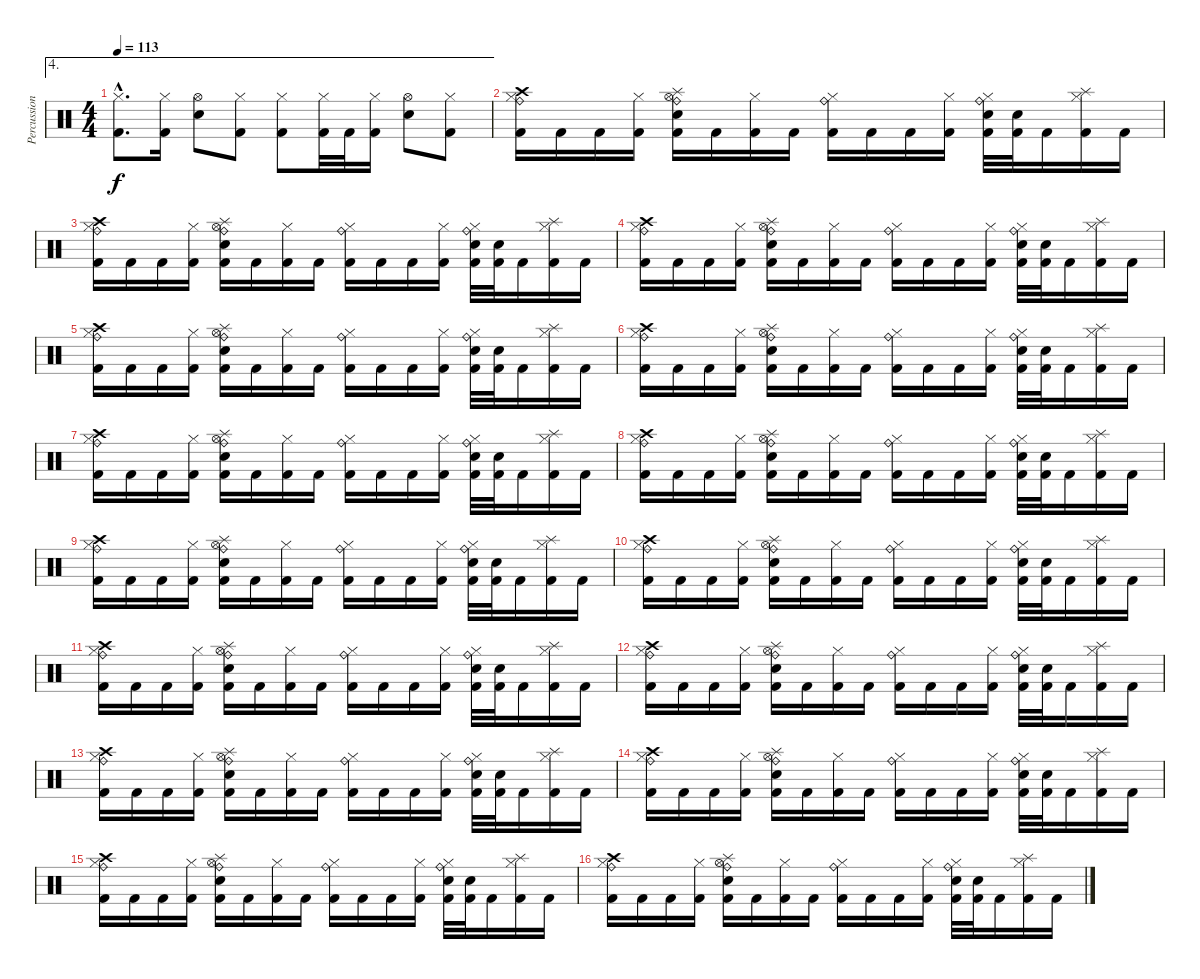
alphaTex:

\track ("Percussion" "Percussion") {instrument percussion}
\staff {score}
\articulation defaults
\ae 4
\ts (4 4)
\tempo 113
\clef neutral
\ks c
("Hi-Hat (closed)"{hac} "Kick (hit) 2"{hac}).8{d dy f} ("Hi-Hat (closed)" "Kick (hit) 2").16 ("Hi-Hat (open)" "Snare (hit) 2").8 ("Hi-Hat (closed)" "Kick (hit) 2").8 ("Hi-Hat (closed)" "Kick (hit) 2").8 ("Hi-Hat (closed)" "Kick (hit) 2").32 "Kick (hit) 2".32 ("Hi-Hat (closed)" "Kick (hit) 2").16 ("Hi-Hat (open)" "Snare (hit) 2").8 ("Hi-Hat (closed)" "Kick (hit) 2").8 |
("Ride (bell)" "Crash high (hit)" "Hi-Hat (closed)" "Kick (hit) 2").16 "Kick (hit) 2".16 "Kick (hit) 2".16 ("Hi-Hat (closed)" "Kick (hit) 2").16 ("Ride (bell)" "Hi-Hat (open)" "Splash (hit)" "Snare (hit) 2" "Kick (hit) 2").16 "Kick (hit) 2".16 ("Hi-Hat (closed)" "Kick (hit) 2").16 "Kick (hit) 2".16 ("Ride (bell)" "Hi-Hat (closed)" "Kick (hit) 2").16 "Kick (hit) 2".16 "Kick (hit) 2".16 ("Hi-Hat (closed)" "Kick (hit) 2").16 ("Ride (bell)" "Hi-Hat (closed)" "Snare (hit) 2" "Kick (hit) 2").32 ("Snare (hit) 2" "Kick (hit) 2").32 "Kick (hit) 2".16 ("Hi-Hat (closed)" "Splash (hit)" "Kick (hit) 2").16 "Kick (hit) 2".16 |
("Ride (bell)" "Crash high (hit)" "Hi-Hat (closed)" "Kick (hit) 2").16 "Kick (hit) 2".16 "Kick (hit) 2".16 ("Hi-Hat (closed)" "Kick (hit) 2").16 ("Ride (bell)" "Hi-Hat (open)" "Splash (hit)" "Snare (hit) 2" "Kick (hit) 2").16 "Kick (hit) 2".16 ("Hi-Hat (closed)" "Kick (hit) 2").16 "Kick (hit) 2".16 ("Ride (bell)" "Hi-Hat (closed)" "Kick (hit) 2").16 "Kick (hit) 2".16 "Kick (hit) 2".16 ("Hi-Hat (closed)" "Kick (hit) 2").16 ("Ride (bell)" "Hi-Hat (closed)" "Snare (hit) 2" "Kick (hit) 2").32 ("Snare (hit) 2" "Kick (hit) 2").32 "Kick (hit) 2".16 ("Hi-Hat (closed)" "Splash (hit)" "Kick (hit) 2").16 "Kick (hit) 2".16 |
("Ride (bell)" "Crash high (hit)" "Hi-Hat (closed)" "Kick (hit) 2").16 "Kick (hit) 2".16 "Kick (hit) 2".16 ("Hi-Hat (closed)" "Kick (hit) 2").16 ("Ride (bell)" "Hi-Hat (open)" "Splash (hit)" "Snare (hit) 2" "Kick (hit) 2").16 "Kick (hit) 2".16 ("Hi-Hat (closed)" "Kick (hit) 2").16 "Kick (hit) 2".16 ("Ride (bell)" "Hi-Hat (closed)" "Kick (hit) 2").16 "Kick (hit) 2".16 "Kick (hit) 2".16 ("Hi-Hat (closed)" "Kick (hit) 2").16 ("Ride (bell)" "Hi-Hat (closed)" "Snare (hit) 2" "Kick (hit) 2").32 ("Snare (hit) 2" "Kick (hit) 2").32 "Kick (hit) 2".16 ("Hi-Hat (closed)" "Splash (hit)" "Kick (hit) 2").16 "Kick (hit) 2".16 |
("Ride (bell)" "Crash high (hit)" "Hi-Hat (closed)" "Kick (hit) 2").16 "Kick (hit) 2".16 "Kick (hit) 2".16 ("Hi-Hat (closed)" "Kick (hit) 2").16 ("Ride (bell)" "Hi-Hat (open)" "Splash (hit)" "Snare (hit) 2" "Kick (hit) 2").16 "Kick (hit) 2".16 ("Hi-Hat (closed)" "Kick (hit) 2").16 "Kick (hit) 2".16 ("Ride (bell)" "Hi-Hat (closed)" "Kick (hit) 2").16 "Kick (hit) 2".16 "Kick (hit) 2".16 ("Hi-Hat (closed)" "Kick (hit) 2").16 ("Ride (bell)" "Hi-Hat (closed)" "Snare (hit) 2" "Kick (hit) 2").32 ("Snare (hit) 2" "Kick (hit) 2").32 "Kick (hit) 2".16 ("Hi-Hat (closed)" "Splash (hit)" "Kick (hit) 2").16 "Kick (hit) 2".16 |
("Ride (bell)" "Crash high (hit)" "Hi-Hat (closed)" "Kick (hit) 2").16 "Kick (hit) 2".16 "Kick (hit) 2".16 ("Hi-Hat (closed)" "Kick (hit) 2").16 ("Ride (bell)" "Hi-Hat (open)" "Splash (hit)" "Snare (hit) 2" "Kick (hit) 2").16 "Kick (hit) 2".16 ("Hi-Hat (closed)" "Kick (hit) 2").16 "Kick (hit) 2".16 ("Ride (bell)" "Hi-Hat (closed)" "Kick (hit) 2").16 "Kick (hit) 2".16 "Kick (hit) 2".16 ("Hi-Hat (closed)" "Kick (hit) 2").16 ("Ride (bell)" "Hi-Hat (closed)" "Snare (hit) 2" "Kick (hit) 2").32 ("Snare (hit) 2" "Kick (hit) 2").32 "Kick (hit) 2".16 ("Hi-Hat (closed)" "Splash (hit)" "Kick (hit) 2").16 "Kick (hit) 2".16 |
("Ride (bell)" "Crash high (hit)" "Hi-Hat (closed)" "Kick (hit) 2").16 "Kick (hit) 2".16 "Kick (hit) 2".16 ("Hi-Hat (closed)" "Kick (hit) 2").16 ("Ride (bell)" "Hi-Hat (open)" "Splash (hit)" "Snare (hit) 2" "Kick (hit) 2").16 "Kick (hit) 2".16 ("Hi-Hat (closed)" "Kick (hit) 2").16 "Kick (hit) 2".16 ("Ride (bell)" "Hi-Hat (closed)" "Kick (hit) 2").16 "Kick (hit) 2".16 "Kick (hit) 2".16 ("Hi-Hat (closed)" "Kick (hit) 2").16 ("Ride (bell)" "Hi-Hat (closed)" "Snare (hit) 2" "Kick (hit) 2").32 ("Snare (hit) 2" "Kick (hit) 2").32 "Kick (hit) 2".16 ("Hi-Hat (closed)" "Splash (hit)" "Kick (hit) 2").16 "Kick (hit) 2".16 |
("Ride (bell)" "Crash high (hit)" "Hi-Hat (closed)" "Kick (hit) 2").16 "Kick (hit) 2".16 "Kick (hit) 2".16 ("Hi-Hat (closed)" "Kick (hit) 2").16 ("Ride (bell)" "Hi-Hat (open)" "Splash (hit)" "Snare (hit) 2" "Kick (hit) 2").16 "Kick (hit) 2".16 ("Hi-Hat (closed)" "Kick (hit) 2").16 "Kick (hit) 2".16 ("Ride (bell)" "Hi-Hat (closed)" "Kick (hit) 2").16 "Kick (hit) 2".16 "Kick (hit) 2".16 ("Hi-Hat (closed)" "Kick (hit) 2").16 ("Ride (bell)" "Hi-Hat (closed)" "Snare (hit) 2" "Kick (hit) 2").32 ("Snare (hit) 2" "Kick (hit) 2").32 "Kick (hit) 2".16 ("Hi-Hat (closed)" "Splash (hit)" "Kick (hit) 2").16 "Kick (hit) 2".16 |
("Ride (bell)" "Crash high (hit)" "Hi-Hat (closed)" "Kick (hit) 2").16 "Kick (hit) 2".16 "Kick (hit) 2".16 ("Hi-Hat (closed)" "Kick (hit) 2").16 ("Ride (bell)" "Hi-Hat (open)" "Splash (hit)" "Snare (hit) 2" "Kick (hit) 2").16 "Kick (hit) 2".16 ("Hi-Hat (closed)" "Kick (hit) 2").16 "Kick (hit) 2".16 ("Ride (bell)" "Hi-Hat (closed)" "Kick (hit) 2").16 "Kick (hit) 2".16 "Kick (hit) 2".16 ("Hi-Hat (closed)" "Kick (hit) 2").16 ("Ride (bell)" "Hi-Hat (closed)" "Snare (hit) 2" "Kick (hit) 2").32 ("Snare (hit) 2" "Kick (hit) 2").32 "Kick (hit) 2".16 ("Hi-Hat (closed)" "Splash (hit)" "Kick (hit) 2").16 "Kick (hit) 2".16 |
("Ride (bell)" "Crash high (hit)" "Hi-Hat (closed)" "Kick (hit) 2").16 "Kick (hit) 2".16 "Kick (hit) 2".16 ("Hi-Hat (closed)" "Kick (hit) 2").16 ("Ride (bell)" "Hi-Hat (open)" "Splash (hit)" "Snare (hit) 2" "Kick (hit) 2").16 "Kick (hit) 2".16 ("Hi-Hat (closed)" "Kick (hit) 2").16 "Kick (hit) 2".16 ("Ride (bell)" "Hi-Hat (closed)" "Kick (hit) 2").16 "Kick (hit) 2".16 "Kick (hit) 2".16 ("Hi-Hat (closed)" "Kick (hit) 2").16 ("Ride (bell)" "Hi-Hat (closed)" "Snare (hit) 2" "Kick (hit) 2").32 ("Snare (hit) 2" "Kick (hit) 2").32 "Kick (hit) 2".16 ("Hi-Hat (closed)" "Splash (hit)" "Kick (hit) 2").16 "Kick (hit) 2".16 |
("Ride (bell)" "Crash high (hit)" "Hi-Hat (closed)" "Kick (hit) 2").16 "Kick (hit) 2".16 "Kick (hit) 2".16 ("Hi-Hat (closed)" "Kick (hit) 2").16 ("Ride (bell)" "Hi-Hat (open)" "Splash (hit)" "Snare (hit) 2" "Kick (hit) 2").16 "Kick (hit) 2".16 ("Hi-Hat (closed)" "Kick (hit) 2").16 "Kick (hit) 2".16 ("Ride (bell)" "Hi-Hat (closed)" "Kick (hit) 2").16 "Kick (hit) 2".16 "Kick (hit) 2".16 ("Hi-Hat (closed)" "Kick (hit) 2").16 ("Ride (bell)" "Hi-Hat (closed)" "Snare (hit) 2" "Kick (hit) 2").32 ("Snare (hit) 2" "Kick (hit) 2").32 "Kick (hit) 2".16 ("Hi-Hat (closed)" "Splash (hit)" "Kick (hit) 2").16 "Kick (hit) 2".16 |
("Ride (bell)" "Crash high (hit)" "Hi-Hat (closed)" "Kick (hit) 2").16 "Kick (hit) 2".16 "Kick (hit) 2".16 ("Hi-Hat (closed)" "Kick (hit) 2").16 ("Ride (bell)" "Hi-Hat (open)" "Splash (hit)" "Snare (hit) 2" "Kick (hit) 2").16 "Kick (hit) 2".16 ("Hi-Hat (closed)" "Kick (hit) 2").16 "Kick (hit) 2".16 ("Ride (bell)" "Hi-Hat (closed)" "Kick (hit) 2").16 "Kick (hit) 2".16 "Kick (hit) 2".16 ("Hi-Hat (closed)" "Kick (hit) 2").16 ("Ride (bell)" "Hi-Hat (closed)" "Snare (hit) 2" "Kick (hit) 2").32 ("Snare (hit) 2" "Kick (hit) 2").32 "Kick (hit) 2".16 ("Hi-Hat (closed)" "Splash (hit)" "Kick (hit) 2").16 "Kick (hit) 2".16 |
("Ride (bell)" "Crash high (hit)" "Hi-Hat (closed)" "Kick (hit) 2").16 "Kick (hit) 2".16 "Kick (hit) 2".16 ("Hi-Hat (closed)" "Kick (hit) 2").16 ("Ride (bell)" "Hi-Hat (open)" "Splash (hit)" "Snare (hit) 2" "Kick (hit) 2").16 "Kick (hit) 2".16 ("Hi-Hat (closed)" "Kick (hit) 2").16 "Kick (hit) 2".16 ("Ride (bell)" "Hi-Hat (closed)" "Kick (hit) 2").16 "Kick (hit) 2".16 "Kick (hit) 2".16 ("Hi-Hat (closed)" "Kick (hit) 2").16 ("Ride (bell)" "Hi-Hat (closed)" "Snare (hit) 2" "Kick (hit) 2").32 ("Snare (hit) 2" "Kick (hit) 2").32 "Kick (hit) 2".16 ("Hi-Hat (closed)" "Splash (hit)" "Kick (hit) 2").16 "Kick (hit) 2".16 |
("Ride (bell)" "Crash high (hit)" "Hi-Hat (closed)" "Kick (hit) 2").16 "Kick (hit) 2".16 "Kick (hit) 2".16 ("Hi-Hat (closed)" "Kick (hit) 2").16 ("Ride (bell)" "Hi-Hat (open)" "Splash (hit)" "Snare (hit) 2" "Kick (hit) 2").16 "Kick (hit) 2".16 ("Hi-Hat (closed)" "Kick (hit) 2").16 "Kick (hit) 2".16 ("Ride (bell)" "Hi-Hat (closed)" "Kick (hit) 2").16 "Kick (hit) 2".16 "Kick (hit) 2".16 ("Hi-Hat (closed)" "Kick (hit) 2").16 ("Ride (bell)" "Hi-Hat (closed)" "Snare (hit) 2" "Kick (hit) 2").32 ("Snare (hit) 2" "Kick (hit) 2").32 "Kick (hit) 2".16 ("Hi-Hat (closed)" "Splash (hit)" "Kick (hit) 2").16 "Kick (hit) 2".16 |
("Ride (bell)" "Crash high (hit)" "Hi-Hat (closed)" "Kick (hit) 2").16 "Kick (hit) 2".16 "Kick (hit) 2".16 ("Hi-Hat (closed)" "Kick (hit) 2").16 ("Ride (bell)" "Hi-Hat (open)" "Splash (hit)" "Snare (hit) 2" "Kick (hit) 2").16 "Kick (hit) 2".16 ("Hi-Hat (closed)" "Kick (hit) 2").16 "Kick (hit) 2".16 ("Ride (bell)" "Hi-Hat (closed)" "Kick (hit) 2").16 "Kick (hit) 2".16 "Kick (hit) 2".16 ("Hi-Hat (closed)" "Kick (hit) 2").16 ("Ride (bell)" "Hi-Hat (closed)" "Snare (hit) 2" "Kick (hit) 2").32 ("Snare (hit) 2" "Kick (hit) 2").32 "Kick (hit) 2".16 ("Hi-Hat (closed)" "Splash (hit)" "Kick (hit) 2").16 "Kick (hit) 2".16 |
("Ride (bell)" "Crash high (hit)" "Hi-Hat (closed)" "Kick (hit) 2").16 "Kick (hit) 2".16 "Kick (hit) 2".16 ("Hi-Hat (closed)" "Kick (hit) 2").16 ("Ride (bell)" "Hi-Hat (open)" "Splash (hit)" "Snare (hit) 2" "Kick (hit) 2").16 "Kick (hit) 2".16 ("Hi-Hat (closed)" "Kick (hit) 2").16 "Kick (hit) 2".16 ("Ride (bell)" "Hi-Hat (closed)" "Kick (hit) 2").16 "Kick (hit) 2".16 "Kick (hit) 2".16 ("Hi-Hat (closed)" "Kick (hit) 2").16 ("Ride (bell)" "Hi-Hat (closed)" "Snare (hit) 2" "Kick (hit) 2").32 ("Snare (hit) 2" "Kick (hit) 2").32 "Kick (hit) 2".16 ("Hi-Hat (closed)" "Splash (hit)" "Kick (hit) 2").16 "Kick (hit) 2".16
